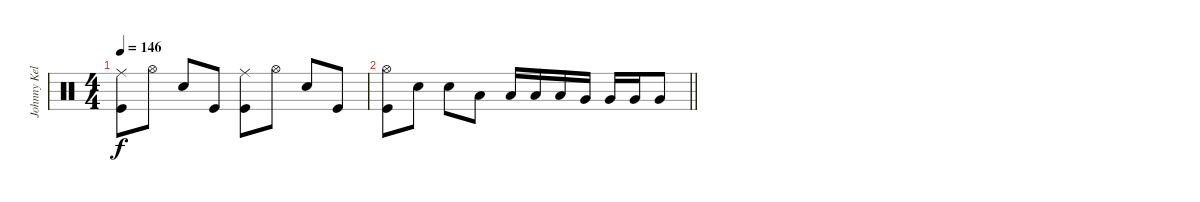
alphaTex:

\track ("Johnny Kelly" "Johnny Kel") {instrument percussion}
\staff {score}
\articulation defaults
\ts (4 4)
\tempo 146
\clef neutral
\ks c
("Kick (hit)" "Ride (middle)").8{dy f} "Hi-Hat (open)".8 "Snare (hit) 2".8 "Kick (hit)".8 ("Kick (hit)" "Ride (middle)").8 "Hi-Hat (open)".8 "Snare (hit) 2".8 "Kick (hit)".8 |
\barLineRight lightlight
("Kick (hit)" "Hi-Hat (open)").8 "Snare (hit) 2".8 "Snare (hit) 2".8 "Low Tom (hit)".8 "Low Tom (hit)".16 "Low Tom (hit)".16 "Low Tom (hit)".16 "Very Low Tom (hit)".16 "Very Low Tom (hit)".16 "Very Low Tom (hit)".16 "Very Low Tom (hit)".8
